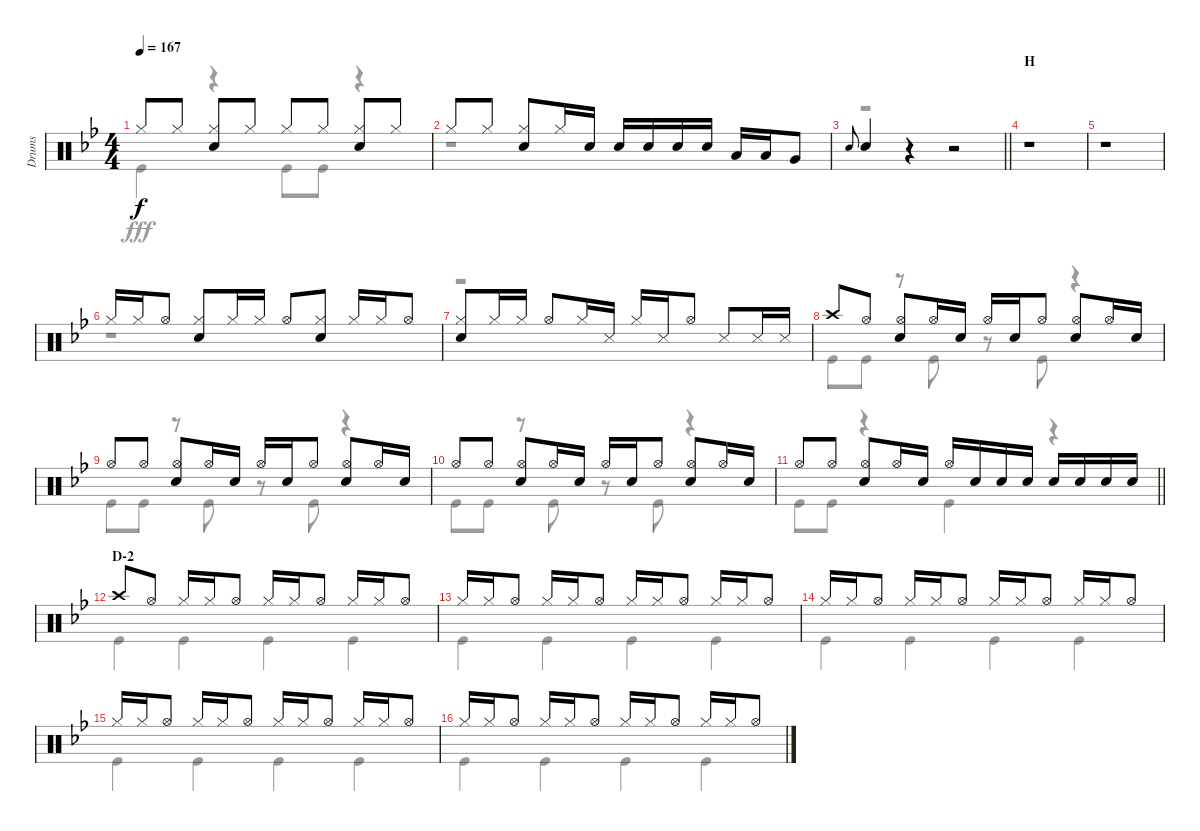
\track ("Drums" "Drums") {instrument percussion}
\staff {score}
\articulation defaults
\voice
\ts (4 4)
\tempo 167
\clef neutral
\ks bb "Hi-Hat (closed)".8{dy f} "Hi-Hat (closed)".8
("Hi-Hat (closed)" "Snare (hit) 2").8 "Hi-Hat (closed)".8 "Hi-Hat (closed)".8 "Hi-Hat (closed)".8 ("Hi-Hat (closed)" "Snare (hit) 2").8 "Hi-Hat (closed)".8 |
"Hi-Hat (closed)".8 "Hi-Hat (closed)".8 ("Hi-Hat (closed)" "Snare (hit) 2").8 "Hi-Hat (closed)".16 "Snare (hit) 2".16 "Snare (hit) 2".16 "Snare (hit) 2".16 "Snare (hit) 2".16 "Snare (hit) 2".16 "Low Tom (hit)".16 "Low Tom (hit)".16 "Very Low Tom (hit)".8 |
\barLineRight lightlight "Snare (hit) 2".8{gr onbeat} "Snare (hit) 2".4
r.4 r.2 |
\section ("" "H")
r.1 |
r.1 |
"Hi-Hat (closed)".16 "Hi-Hat (closed)".16 "Hi-Hat (open)".8 ("Hi-Hat (closed)" "Snare (hit) 2").8 "Hi-Hat (closed)".16 "Hi-Hat (closed)".16 "Hi-Hat (open)".8 ("Hi-Hat (closed)" "Snare (hit) 2").8 "Hi-Hat (closed)".16 "Hi-Hat (closed)".16 "Hi-Hat (open)".8 |
("Hi-Hat (closed)" "Snare (hit) 2").8 "Hi-Hat (closed)".16 "Hi-Hat (closed)".16 "Hi-Hat (open)".8 "Hi-Hat (closed)".16 "Snare (side stick) 3".16 "Hi-Hat (closed)".16 "Snare (side stick) 3".16 "Hi-Hat (open)".8 "Snare (side stick) 3".8 "Snare (side stick) 3".16 "Snare (side stick) 3".16 |
"Crash high (hit)".8 "Hi-Hat (open)".8 ("Hi-Hat (open)" "Snare (hit) 2").8 "Hi-Hat (open)".16 "Snare (hit) 2".16 "Hi-Hat (open)".16 "Snare (hit) 2".16 "Hi-Hat (open)".8 ("Hi-Hat (open)" "Snare (hit) 2").8 "Hi-Hat (open)".16 "Snare (hit) 2".16 |
"Hi-Hat (open)".8 "Hi-Hat (open)".8 ("Hi-Hat (open)" "Snare (hit) 2").8 "Hi-Hat (open)".16 "Snare (hit) 2".16 "Hi-Hat (open)".16 "Snare (hit) 2".16 "Hi-Hat (open)".8 ("Hi-Hat (open)" "Snare (hit) 2").8 "Hi-Hat (open)".16 "Snare (hit) 2".16 |
"Hi-Hat (open)".8 "Hi-Hat (open)".8 ("Hi-Hat (open)" "Snare (hit) 2").8 "Hi-Hat (open)".16 "Snare (hit) 2".16 "Hi-Hat (open)".16 "Snare (hit) 2".16 "Hi-Hat (open)".8 ("Hi-Hat (open)" "Snare (hit) 2").8 "Hi-Hat (open)".16 "Snare (hit) 2".16 |
\barLineRight lightlight "Hi-Hat (open)".8 "Hi-Hat (open)".8
("Hi-Hat (open)" "Snare (hit) 2").8 "Hi-Hat (open)".16 "Snare (hit) 2".16 "Hi-Hat (open)".16 "Snare (hit) 2".16 "Snare (hit) 2".16 "Snare (hit) 2".16 "Snare (hit) 2".16 "Snare (hit) 2".16 "Snare (hit) 2".16 "Snare (hit) 2".16 |
\section ("" "D-2")
"Crash high (hit)".8 "Hi-Hat (open)".8 "Hi-Hat (closed)".16 "Hi-Hat (closed)".16 "Hi-Hat (open)".8 "Hi-Hat (closed)".16 "Hi-Hat (closed)".16 "Hi-Hat (open)".8 "Hi-Hat (closed)".16 "Hi-Hat (closed)".16 "Hi-Hat (open)".8 |
"Hi-Hat (closed)".16 "Hi-Hat (closed)".16 "Hi-Hat (open)".8 "Hi-Hat (closed)".16 "Hi-Hat (closed)".16 "Hi-Hat (open)".8 "Hi-Hat (closed)".16 "Hi-Hat (closed)".16 "Hi-Hat (open)".8 "Hi-Hat (closed)".16 "Hi-Hat (closed)".16 "Hi-Hat (open)".8 |
"Hi-Hat (closed)".16 "Hi-Hat (closed)".16 "Hi-Hat (open)".8 "Hi-Hat (closed)".16 "Hi-Hat (closed)".16 "Hi-Hat (open)".8 "Hi-Hat (closed)".16 "Hi-Hat (closed)".16 "Hi-Hat (open)".8 "Hi-Hat (closed)".16 "Hi-Hat (closed)".16 "Hi-Hat (open)".8 |
"Hi-Hat (closed)".16 "Hi-Hat (closed)".16 "Hi-Hat (open)".8 "Hi-Hat (closed)".16 "Hi-Hat (closed)".16 "Hi-Hat (open)".8 "Hi-Hat (closed)".16 "Hi-Hat (closed)".16 "Hi-Hat (open)".8 "Hi-Hat (closed)".16 "Hi-Hat (closed)".16 "Hi-Hat (open)".8 |
"Hi-Hat (closed)".16 "Hi-Hat (closed)".16 "Hi-Hat (open)".8 "Hi-Hat (closed)".16 "Hi-Hat (closed)".16 "Hi-Hat (open)".8 "Hi-Hat (closed)".16 "Hi-Hat (closed)".16 "Hi-Hat (open)".8 "Hi-Hat (closed)".16 "Hi-Hat (closed)".16 "Hi-Hat (open)".8
\voice
\clef neutral
\ottava regular
\simile none
\ks bb "Kick (hit)".4{dy fff}
r.4 "Kick (hit)".8 "Kick (hit)".8 r.4 |
r.1 |
\barLineRight lightlight
r.1 |
r.1 |
r.1 |
r.1 |
r.1 |
"Kick (hit)".8 "Kick (hit)".8 r.8 "Kick (hit)".8 r.8 "Kick (hit)".8 r.4 |
"Kick (hit)".8 "Kick (hit)".8 r.8 "Kick (hit)".8 r.8 "Kick (hit)".8 r.4 |
"Kick (hit)".8 "Kick (hit)".8 r.8 "Kick (hit)".8 r.8 "Kick (hit)".8 r.4 |
\barLineRight lightlight "Kick (hit)".8 "Kick (hit)".8
r.4 "Kick (hit)".4 r.4 |
"Kick (hit)".4 "Kick (hit)".4 "Kick (hit)".4 "Kick (hit)".4 |
"Kick (hit)".4 "Kick (hit)".4 "Kick (hit)".4 "Kick (hit)".4 |
"Kick (hit)".4 "Kick (hit)".4 "Kick (hit)".4 "Kick (hit)".4 |
"Kick (hit)".4 "Kick (hit)".4 "Kick (hit)".4 "Kick (hit)".4 |
"Kick (hit)".4 "Kick (hit)".4 "Kick (hit)".4 "Kick (hit)".4
